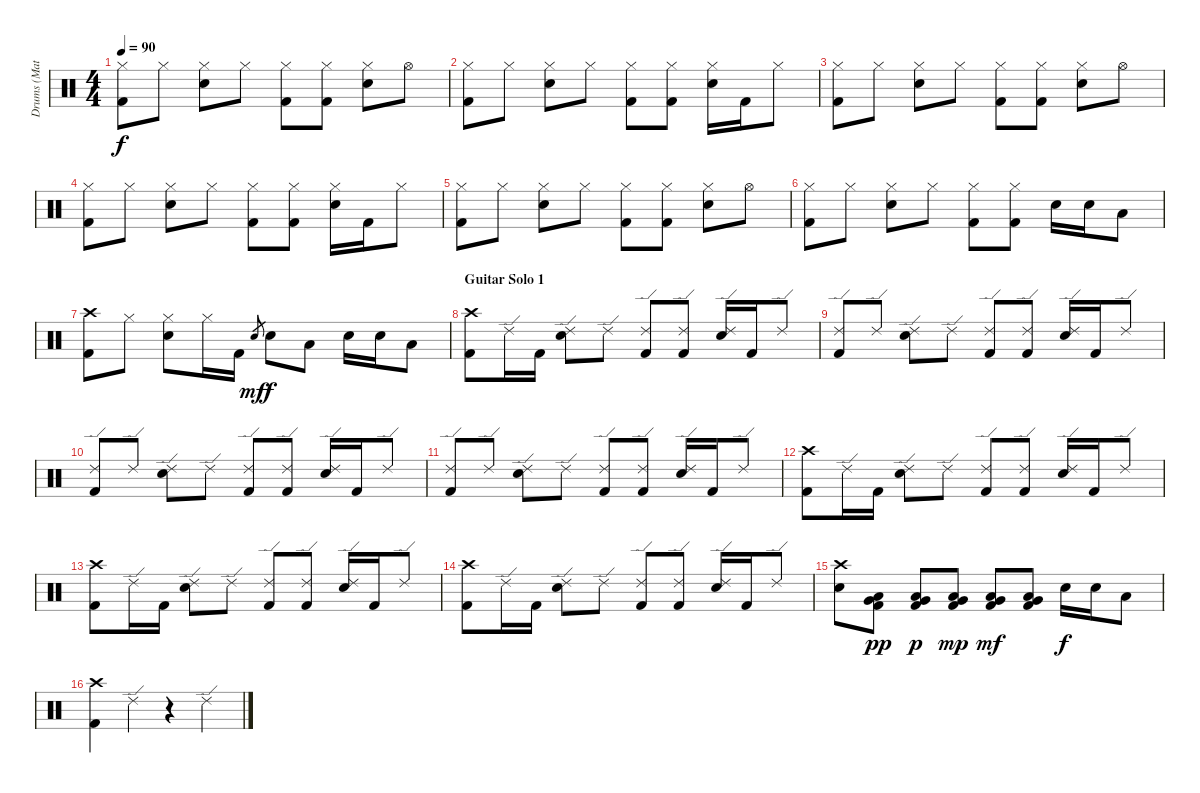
\track ("Drums (Matt)" "Drums (Mat") {instrument percussion}
\staff {score}
\articulation defaults
\ts (4 4)
\tempo 90
\clef neutral
\ks c
("Hi-Hat (closed)" "Kick (hit) 2").8{dy f} "Hi-Hat (closed)".8 ("Hi-Hat (closed)" "Snare (hit) 2").8 "Hi-Hat (closed)".8 ("Hi-Hat (closed)" "Kick (hit) 2").8 ("Hi-Hat (closed)" "Kick (hit) 2").8 ("Hi-Hat (closed)" "Snare (hit) 2").8 "Hi-Hat (open)".8 |
("Hi-Hat (closed)" "Kick (hit) 2").8 "Hi-Hat (closed)".8 ("Hi-Hat (closed)" "Snare (hit) 2").8 "Hi-Hat (closed)".8 ("Hi-Hat (closed)" "Kick (hit) 2").8 ("Hi-Hat (closed)" "Kick (hit) 2").8 ("Hi-Hat (closed)" "Snare (hit) 2").16 "Kick (hit) 2".16 "Hi-Hat (closed)".8 |
("Hi-Hat (closed)" "Kick (hit) 2").8 "Hi-Hat (closed)".8 ("Hi-Hat (closed)" "Snare (hit) 2").8 "Hi-Hat (closed)".8 ("Hi-Hat (closed)" "Kick (hit) 2").8 ("Hi-Hat (closed)" "Kick (hit) 2").8 ("Hi-Hat (closed)" "Snare (hit) 2").8 "Hi-Hat (open)".8 |
("Hi-Hat (closed)" "Kick (hit) 2").8 "Hi-Hat (closed)".8 ("Hi-Hat (closed)" "Snare (hit) 2").8 "Hi-Hat (closed)".8 ("Hi-Hat (closed)" "Kick (hit) 2").8 ("Hi-Hat (closed)" "Kick (hit) 2").8 ("Hi-Hat (closed)" "Snare (hit) 2").16 "Kick (hit) 2".16 "Hi-Hat (closed)".8 |
("Hi-Hat (closed)" "Kick (hit) 2").8 "Hi-Hat (closed)".8 ("Hi-Hat (closed)" "Snare (hit) 2").8 "Hi-Hat (closed)".8 ("Hi-Hat (closed)" "Kick (hit) 2").8 ("Hi-Hat (closed)" "Kick (hit) 2").8 ("Hi-Hat (closed)" "Snare (hit) 2").8 "Hi-Hat (open)".8 |
("Hi-Hat (closed)" "Kick (hit) 2").8 "Hi-Hat (closed)".8 ("Hi-Hat (closed)" "Snare (hit) 2").8 "Hi-Hat (closed)".8 ("Hi-Hat (closed)" "Kick (hit) 2").8 ("Hi-Hat (closed)" "Kick (hit) 2").8 "Snare (hit) 2".16 "Snare (hit) 2".16 "Low Tom (hit)".8 |
("Crash high (hit)" "Kick (hit) 2").8 "Hi-Hat (closed)".8 ("Hi-Hat (closed)" "Snare (hit) 2").8 "Hi-Hat (closed)".16 "Kick (hit) 2".16 "Snare (hit)".8{gr dy mf} "Snare (hit) 2".8{dy f} "Low Tom (hit)".8 "Snare (hit) 2".16 "Snare (hit) 2".16 "Low Tom (hit)".8 |
\section ("" "Guitar Solo 1")
("Crash high (hit)" "Kick (hit) 2").8 "Ride (edge) 2".16 "Kick (hit) 2".16 ("Ride (edge) 2" "Snare (hit) 2").8 "Ride (edge) 2".8 ("Ride (edge) 2" "Kick (hit) 2").8 ("Ride (edge) 2" "Kick (hit) 2").8 ("Ride (edge) 2" "Snare (hit) 2").16 "Kick (hit) 2".16 "Ride (edge) 2".8 |
("Ride (edge) 2" "Kick (hit) 2").8 "Ride (edge) 2".8 ("Ride (edge) 2" "Snare (hit) 2").8 "Ride (edge) 2".8 ("Ride (edge) 2" "Kick (hit) 2").8 ("Ride (edge) 2" "Kick (hit) 2").8 ("Ride (edge) 2" "Snare (hit) 2").16 "Kick (hit) 2".16 "Ride (edge) 2".8 |
("Ride (edge) 2" "Kick (hit) 2").8 "Ride (edge) 2".8 ("Ride (edge) 2" "Snare (hit) 2").8 "Ride (edge) 2".8 ("Ride (edge) 2" "Kick (hit) 2").8 ("Ride (edge) 2" "Kick (hit) 2").8 ("Ride (edge) 2" "Snare (hit) 2").16 "Kick (hit) 2".16 "Ride (edge) 2".8 |
("Ride (edge) 2" "Kick (hit) 2").8 "Ride (edge) 2".8 ("Ride (edge) 2" "Snare (hit) 2").8 "Ride (edge) 2".8 ("Ride (edge) 2" "Kick (hit) 2").8 ("Ride (edge) 2" "Kick (hit) 2").8 ("Ride (edge) 2" "Snare (hit) 2").16 "Kick (hit) 2".16 "Ride (edge) 2".8 |
("Crash high (hit)" "Kick (hit) 2").8 "Ride (edge) 2".16 "Kick (hit) 2".16 ("Ride (edge) 2" "Snare (hit) 2").8 "Ride (edge) 2".8 ("Ride (edge) 2" "Kick (hit) 2").8 ("Ride (edge) 2" "Kick (hit) 2").8 ("Ride (edge) 2" "Snare (hit) 2").16 "Kick (hit) 2".16 "Ride (edge) 2".8 |
("Crash high (hit)" "Kick (hit) 2").8 "Ride (edge) 2".16 "Kick (hit) 2".16 ("Ride (edge) 2" "Snare (hit) 2").8 "Ride (edge) 2".8 ("Ride (edge) 2" "Kick (hit) 2").8 ("Ride (edge) 2" "Kick (hit) 2").8 ("Ride (edge) 2" "Snare (hit) 2").16 "Kick (hit) 2".16 "Ride (edge) 2".8 |
("Crash high (hit)" "Kick (hit) 2").8 "Ride (edge) 2".16 "Kick (hit) 2".16 ("Ride (edge) 2" "Snare (hit) 2").8 "Ride (edge) 2".8 ("Ride (edge) 2" "Kick (hit) 2").8 ("Ride (edge) 2" "Kick (hit) 2").8 ("Ride (edge) 2" "Snare (hit) 2").16 "Kick (hit) 2".16 "Ride (edge) 2".8 |
("Crash high (hit)" "Snare (hit) 2").8 ("Low Tom (hit)" "Very Low Tom (hit)" "Kick (hit) 2").8{dy pp} ("Low Tom (hit)" "Very Low Tom (hit)" "Kick (hit) 2").8{dy p} ("Low Tom (hit)" "Very Low Tom (hit)" "Kick (hit) 2").8{dy mp} ("Low Tom (hit)" "Very Low Tom (hit)" "Kick (hit) 2").8{dy mf} ("Low Tom (hit)" "Very Low Tom (hit)" "Kick (hit) 2").8 "Snare (hit) 2".16{dy f} "Snare (hit) 2".16 "Low Tom (hit)".8 |
("Crash high (hit)" "Kick (hit) 2").4 "Ride (edge) 2".4 r.4 "Ride (edge) 2".4
